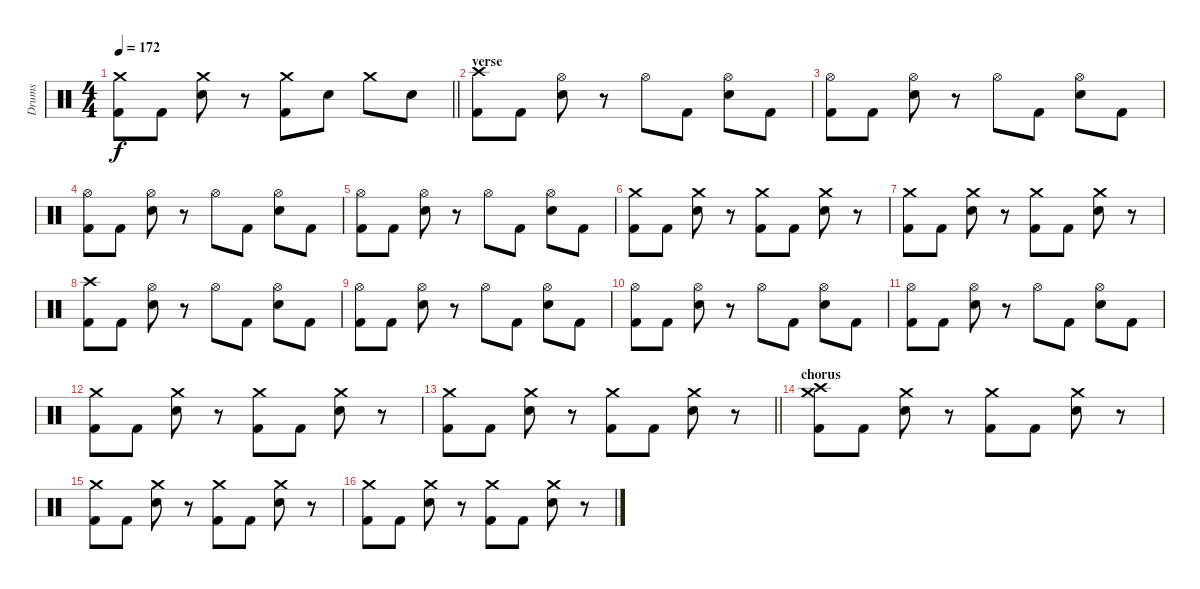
\track ("Drums" "Drums") {instrument percussion}
\staff {score}
\articulation defaults
\ts (4 4)
\tempo 172
\clef neutral
\barLineRight lightlight
\ks c
("Crash medium (hit)" "Kick (hit) 2").8{dy f} "Kick (hit) 2".8 ("Crash medium (hit)" "Electric Snare (hit)").8 r.8 ("Crash medium (hit)" "Kick (hit) 2").8 "Electric Snare (hit)".8 "Crash medium (hit)".8 "Electric Snare (hit)".8 |
\section ("" "verse")
("Crash high (hit)" "Kick (hit) 2").8 "Kick (hit) 2".8 ("Hi-Hat (open)" "Electric Snare (hit)").8 r.8 "Hi-Hat (open)".8 "Kick (hit) 2".8 ("Hi-Hat (open)" "Electric Snare (hit)").8 "Kick (hit) 2".8 |
("Hi-Hat (open)" "Kick (hit) 2").8 "Kick (hit) 2".8 ("Hi-Hat (open)" "Electric Snare (hit)").8 r.8 "Hi-Hat (open)".8 "Kick (hit) 2".8 ("Hi-Hat (open)" "Electric Snare (hit)").8 "Kick (hit) 2".8 |
("Hi-Hat (open)" "Kick (hit) 2").8 "Kick (hit) 2".8 ("Hi-Hat (open)" "Electric Snare (hit)").8 r.8 "Hi-Hat (open)".8 "Kick (hit) 2".8 ("Hi-Hat (open)" "Electric Snare (hit)").8 "Kick (hit) 2".8 |
("Hi-Hat (open)" "Kick (hit) 2").8 "Kick (hit) 2".8 ("Hi-Hat (open)" "Electric Snare (hit)").8 r.8 "Hi-Hat (open)".8 "Kick (hit) 2".8 ("Hi-Hat (open)" "Electric Snare (hit)").8 "Kick (hit) 2".8 |
("Crash medium (hit)" "Kick (hit) 2").8 "Kick (hit) 2".8 ("Crash medium (hit)" "Electric Snare (hit)").8 r.8 ("Crash medium (hit)" "Kick (hit) 2").8 "Kick (hit) 2".8 ("Crash medium (hit)" "Electric Snare (hit)").8 r.8 |
("Crash medium (hit)" "Kick (hit) 2").8 "Kick (hit) 2".8 ("Crash medium (hit)" "Electric Snare (hit)").8 r.8 ("Crash medium (hit)" "Kick (hit) 2").8 "Kick (hit) 2".8 ("Crash medium (hit)" "Electric Snare (hit)").8 r.8 |
("Crash high (hit)" "Kick (hit) 2").8 "Kick (hit) 2".8 ("Hi-Hat (open)" "Electric Snare (hit)").8 r.8 "Hi-Hat (open)".8 "Kick (hit) 2".8 ("Hi-Hat (open)" "Electric Snare (hit)").8 "Kick (hit) 2".8 |
("Hi-Hat (open)" "Kick (hit) 2").8 "Kick (hit) 2".8 ("Hi-Hat (open)" "Electric Snare (hit)").8 r.8 "Hi-Hat (open)".8 "Kick (hit) 2".8 ("Hi-Hat (open)" "Electric Snare (hit)").8 "Kick (hit) 2".8 |
("Hi-Hat (open)" "Kick (hit) 2").8 "Kick (hit) 2".8 ("Hi-Hat (open)" "Electric Snare (hit)").8 r.8 "Hi-Hat (open)".8 "Kick (hit) 2".8 ("Hi-Hat (open)" "Electric Snare (hit)").8 "Kick (hit) 2".8 |
("Hi-Hat (open)" "Kick (hit) 2").8 "Kick (hit) 2".8 ("Hi-Hat (open)" "Electric Snare (hit)").8 r.8 "Hi-Hat (open)".8 "Kick (hit) 2".8 ("Hi-Hat (open)" "Electric Snare (hit)").8 "Kick (hit) 2".8 |
("Crash medium (hit)" "Kick (hit) 2").8 "Kick (hit) 2".8 ("Crash medium (hit)" "Electric Snare (hit)").8 r.8 ("Crash medium (hit)" "Kick (hit) 2").8 "Kick (hit) 2".8 ("Crash medium (hit)" "Electric Snare (hit)").8 r.8 |
\barLineRight lightlight
("Crash medium (hit)" "Kick (hit) 2").8 "Kick (hit) 2".8 ("Crash medium (hit)" "Electric Snare (hit)").8 r.8 ("Crash medium (hit)" "Kick (hit) 2").8 "Kick (hit) 2".8 ("Crash medium (hit)" "Electric Snare (hit)").8 r.8 |
\section ("" "chorus")
("Crash high (hit)" "Crash medium (hit)" "Kick (hit) 2").8 "Kick (hit) 2".8 ("Crash medium (hit)" "Electric Snare (hit)").8 r.8 ("Crash medium (hit)" "Kick (hit) 2").8 "Kick (hit) 2".8 ("Crash medium (hit)" "Electric Snare (hit)").8 r.8 |
("Crash medium (hit)" "Kick (hit) 2").8 "Kick (hit) 2".8 ("Crash medium (hit)" "Electric Snare (hit)").8 r.8 ("Crash medium (hit)" "Kick (hit) 2").8 "Kick (hit) 2".8 ("Crash medium (hit)" "Electric Snare (hit)").8 r.8 |
("Crash medium (hit)" "Kick (hit) 2").8 "Kick (hit) 2".8 ("Crash medium (hit)" "Electric Snare (hit)").8 r.8 ("Crash medium (hit)" "Kick (hit) 2").8 "Kick (hit) 2".8 ("Crash medium (hit)" "Electric Snare (hit)").8 r.8
